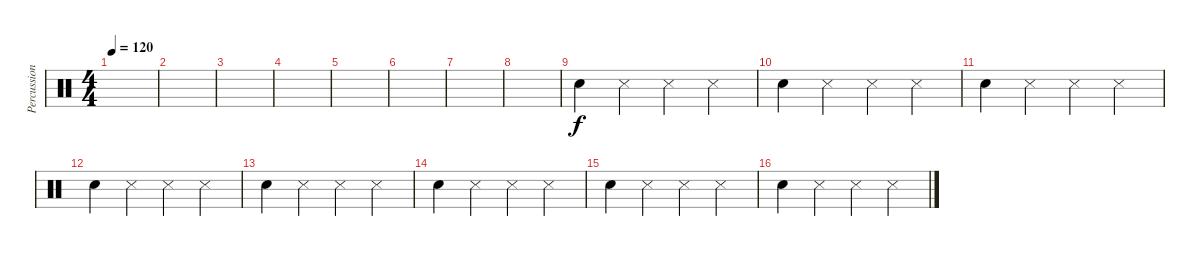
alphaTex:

\track ("Percussion" "Percussion") {instrument percussion}
\staff {score}
\articulation defaults
\ts (4 4)
\tempo 120
\clef neutral
\ks c
|
|
|
|
|
|
|
|
"Snare (hit) 2".4 "Snare (side stick) 3".4 "Snare (side stick) 3".4 "Snare (side stick) 3".4 |
"Snare (hit) 2".4 "Snare (side stick) 3".4 "Snare (side stick) 3".4 "Snare (side stick) 3".4 |
"Snare (hit) 2".4 "Snare (side stick) 3".4 "Snare (side stick) 3".4 "Snare (side stick) 3".4 |
"Snare (hit) 2".4 "Snare (side stick) 3".4 "Snare (side stick) 3".4 "Snare (side stick) 3".4 |
"Snare (hit) 2".4 "Snare (side stick) 3".4 "Snare (side stick) 3".4 "Snare (side stick) 3".4 |
"Snare (hit) 2".4 "Snare (side stick) 3".4 "Snare (side stick) 3".4 "Snare (side stick) 3".4 |
"Snare (hit) 2".4 "Snare (side stick) 3".4 "Snare (side stick) 3".4 "Snare (side stick) 3".4 |
"Snare (hit) 2".4 "Snare (side stick) 3".4 "Snare (side stick) 3".4 "Snare (side stick) 3".4
